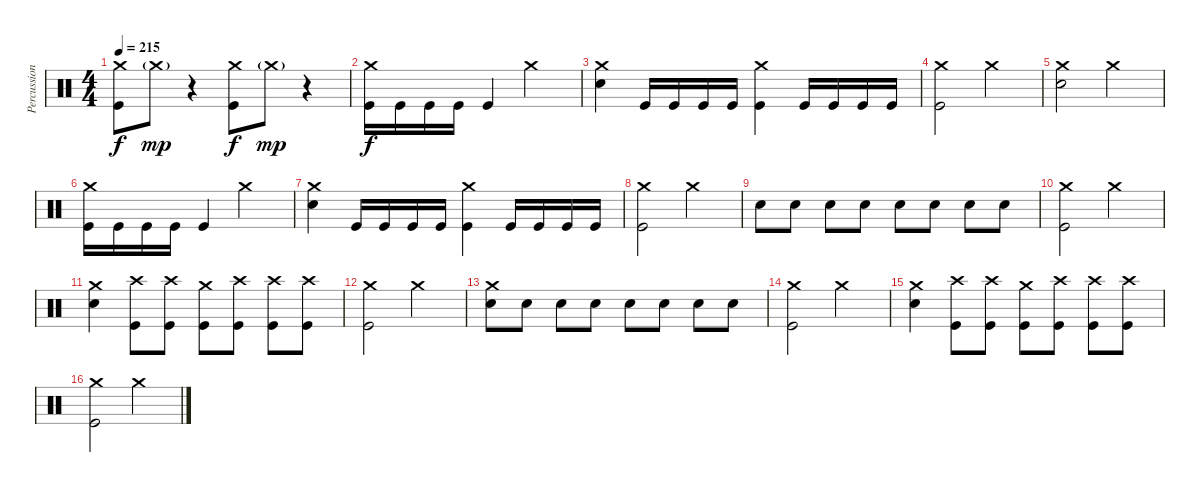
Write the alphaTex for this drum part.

\track ("Percussion" "Percussion") {instrument percussion}
\staff {score}
\articulation defaults
\ts (4 4)
\tempo 215
\clef neutral
\ks c
("Crash medium (hit)" "Kick (hit)").8{dy f} "Crash medium (hit)"{g}.8{dy mp} r.4 ("Crash medium (hit)" "Kick (hit)").8{dy f} "Crash medium (hit)"{g}.8{dy mp} r.4 |
("Crash medium (hit)" "Kick (hit)").16{dy f} "Kick (hit)".16 "Kick (hit)".16 "Kick (hit)".16 "Kick (hit)".4 "Crash medium (hit)".2 |
("Crash medium (hit)" "Snare (hit) 2").4 "Kick (hit)".16 "Kick (hit)".16 "Kick (hit)".16 "Kick (hit)".16 ("Crash medium (hit)" "Kick (hit)").4 "Kick (hit)".16 "Kick (hit)".16 "Kick (hit)".16 "Kick (hit)".16 |
("Crash medium (hit)" "Kick (hit)").2 "Crash medium (hit)".2 |
("Crash medium (hit)" "Snare (hit) 2").2 "Crash medium (hit)".2 |
("Crash medium (hit)" "Kick (hit)").16 "Kick (hit)".16 "Kick (hit)".16 "Kick (hit)".16 "Kick (hit)".4 "Crash medium (hit)".2 |
("Crash medium (hit)" "Snare (hit) 2").4 "Kick (hit)".16 "Kick (hit)".16 "Kick (hit)".16 "Kick (hit)".16 ("Crash medium (hit)" "Kick (hit)").4 "Kick (hit)".16 "Kick (hit)".16 "Kick (hit)".16 "Kick (hit)".16 |
("Crash medium (hit)" "Kick (hit)").2 "Crash medium (hit)".2 |
"Snare (hit) 2".8 "Snare (hit) 2".8 "Snare (hit) 2".8 "Snare (hit) 2".8 "Snare (hit) 2".8 "Snare (hit) 2".8 "Snare (hit) 2".8 "Snare (hit) 2".8 |
("Crash medium (hit)" "Kick (hit)").2 "Crash medium (hit)".2 |
("Crash medium (hit)" "Snare (hit) 2").4 ("Crash high (hit)" "Kick (hit)").8 ("Crash high (hit)" "Kick (hit)").8 ("Crash medium (hit)" "Kick (hit)").8 ("Crash high (hit)" "Kick (hit)").8 ("Crash high (hit)" "Kick (hit)").8 ("Crash high (hit)" "Kick (hit)").8 |
("Crash medium (hit)" "Kick (hit)").2 "Crash medium (hit)".2 |
("Crash medium (hit)" "Snare (hit) 2").8 "Snare (hit) 2".8 "Snare (hit) 2".8 "Snare (hit) 2".8 "Snare (hit) 2".8 "Snare (hit) 2".8 "Snare (hit) 2".8 "Snare (hit) 2".8 |
("Crash medium (hit)" "Kick (hit)").2 "Crash medium (hit)".2 |
("Crash medium (hit)" "Snare (hit) 2").4 ("Crash high (hit)" "Kick (hit)").8 ("Crash high (hit)" "Kick (hit)").8 ("Crash medium (hit)" "Kick (hit)").8 ("Crash high (hit)" "Kick (hit)").8 ("Crash high (hit)" "Kick (hit)").8 ("Crash high (hit)" "Kick (hit)").8 |
("Crash medium (hit)" "Kick (hit)").2 "Crash medium (hit)".2
